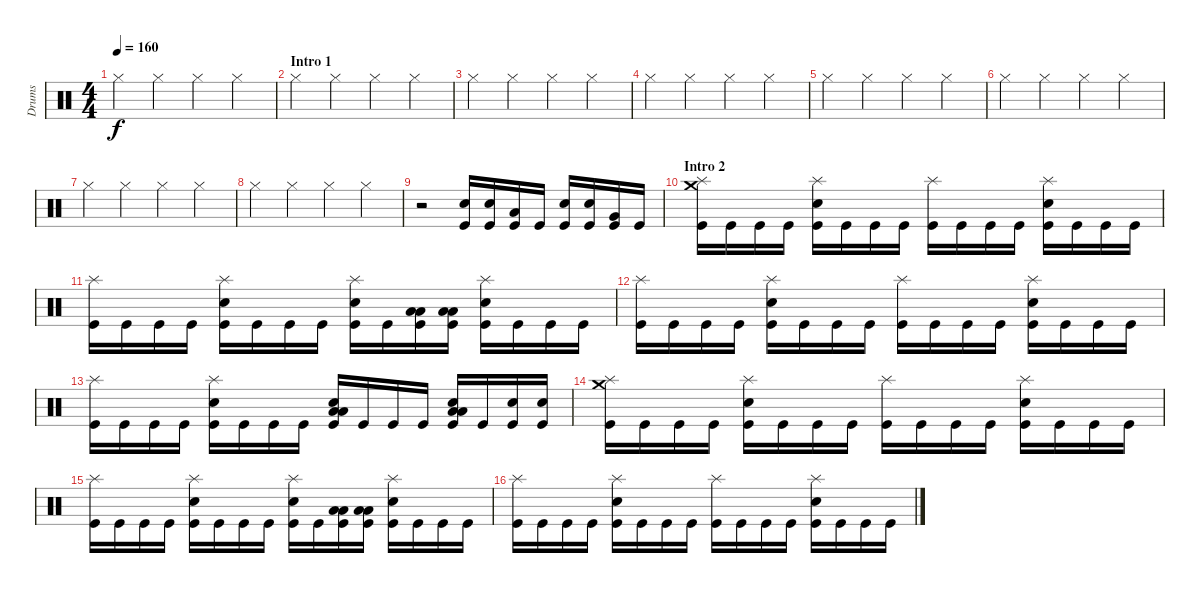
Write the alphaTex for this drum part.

\track ("Drums" "Drums") {instrument percussion}
\staff {score}
\articulation defaults
\ts (4 4)
\tempo 160
\clef neutral
\ks c "Hi-Hat (closed)".4{dy f} "Hi-Hat (closed)".4 "Hi-Hat (closed)".4 "Hi-Hat (closed)".4
|
\section ("" "Intro 1")
"Hi-Hat (closed)".4 "Hi-Hat (closed)".4 "Hi-Hat (closed)".4 "Hi-Hat (closed)".4 |
"Hi-Hat (closed)".4 "Hi-Hat (closed)".4 "Hi-Hat (closed)".4 "Hi-Hat (closed)".4 |
"Hi-Hat (closed)".4 "Hi-Hat (closed)".4 "Hi-Hat (closed)".4 "Hi-Hat (closed)".4 |
"Hi-Hat (closed)".4 "Hi-Hat (closed)".4 "Hi-Hat (closed)".4 "Hi-Hat (closed)".4 |
"Hi-Hat (closed)".4 "Hi-Hat (closed)".4 "Hi-Hat (closed)".4 "Hi-Hat (closed)".4 |
"Hi-Hat (closed)".4 "Hi-Hat (closed)".4 "Hi-Hat (closed)".4 "Hi-Hat (closed)".4 |
"Hi-Hat (closed)".4 "Hi-Hat (closed)".4 "Hi-Hat (closed)".4 "Hi-Hat (closed)".4 |
r.2 ("Electric Snare (hit)" "Kick (hit)").16 ("Electric Snare (hit)" "Kick (hit)").16 ("Low Tom (hit)" "Kick (hit)").16 "Kick (hit)".16 ("Electric Snare (hit)" "Kick (hit)").16 ("Electric Snare (hit)" "Kick (hit)").16 ("Very Low Tom (hit)" "Kick (hit)").16 "Kick (hit)".16 |
\section ("" "Intro 2")
("Crash medium (hit)" "Splash (hit)" "Kick (hit)").16 "Kick (hit)".16 "Kick (hit)".16 "Kick (hit)".16 ("Splash (hit)" "Electric Snare (hit)" "Kick (hit)").16 "Kick (hit)".16 "Kick (hit)".16 "Kick (hit)".16 ("Splash (hit)" "Kick (hit)").16 "Kick (hit)".16 "Kick (hit)".16 "Kick (hit)".16 ("Splash (hit)" "Electric Snare (hit)" "Kick (hit)").16 "Kick (hit)".16 "Kick (hit)".16 "Kick (hit)".16 |
("Splash (hit)" "Kick (hit)").16 "Kick (hit)".16 "Kick (hit)".16 "Kick (hit)".16 ("Splash (hit)" "Electric Snare (hit)" "Kick (hit)").16 "Kick (hit)".16 "Kick (hit)".16 "Kick (hit)".16 ("Splash (hit)" "Electric Snare (hit)" "Kick (hit)").16 "Kick (hit)".16 ("Low Floor Tom (hit)" "Low Floor Tom (hit)" "Kick (hit)").16 ("Low Floor Tom (hit)" "Low Floor Tom (hit)" "Kick (hit)").16 ("Splash (hit)" "Electric Snare (hit)" "Kick (hit)").16 "Kick (hit)".16 "Kick (hit)".16 "Kick (hit)".16 |
("Splash (hit)" "Kick (hit)").16 "Kick (hit)".16 "Kick (hit)".16 "Kick (hit)".16 ("Splash (hit)" "Electric Snare (hit)" "Kick (hit)").16 "Kick (hit)".16 "Kick (hit)".16 "Kick (hit)".16 ("Splash (hit)" "Kick (hit)").16 "Kick (hit)".16 "Kick (hit)".16 "Kick (hit)".16 ("Splash (hit)" "Electric Snare (hit)" "Kick (hit)").16 "Kick (hit)".16 "Kick (hit)".16 "Kick (hit)".16 |
("Splash (hit)" "Kick (hit)").16 "Kick (hit)".16 "Kick (hit)".16 "Kick (hit)".16 ("Splash (hit)" "Electric Snare (hit)" "Kick (hit)").16 "Kick (hit)".16 "Kick (hit)".16 "Kick (hit)".16 ("Low Floor Tom (hit)" "Low Floor Tom (hit)" "Electric Snare (hit)" "Kick (hit)").16 "Kick (hit)".16 "Kick (hit)".16 "Kick (hit)".16 ("Low Floor Tom (hit)" "Low Floor Tom (hit)" "Electric Snare (hit)" "Kick (hit)").16 "Kick (hit)".16 ("Electric Snare (hit)" "Kick (hit)").16 ("Electric Snare (hit)" "Kick (hit)").16 |
("Crash medium (hit)" "Splash (hit)" "Kick (hit)").16 "Kick (hit)".16 "Kick (hit)".16 "Kick (hit)".16 ("Splash (hit)" "Electric Snare (hit)" "Kick (hit)").16 "Kick (hit)".16 "Kick (hit)".16 "Kick (hit)".16 ("Splash (hit)" "Kick (hit)").16 "Kick (hit)".16 "Kick (hit)".16 "Kick (hit)".16 ("Splash (hit)" "Electric Snare (hit)" "Kick (hit)").16 "Kick (hit)".16 "Kick (hit)".16 "Kick (hit)".16 |
("Splash (hit)" "Kick (hit)").16 "Kick (hit)".16 "Kick (hit)".16 "Kick (hit)".16 ("Splash (hit)" "Electric Snare (hit)" "Kick (hit)").16 "Kick (hit)".16 "Kick (hit)".16 "Kick (hit)".16 ("Splash (hit)" "Electric Snare (hit)" "Kick (hit)").16 "Kick (hit)".16 ("Low Floor Tom (hit)" "Low Floor Tom (hit)" "Kick (hit)").16 ("Low Floor Tom (hit)" "Low Floor Tom (hit)" "Kick (hit)").16 ("Splash (hit)" "Electric Snare (hit)" "Kick (hit)").16 "Kick (hit)".16 "Kick (hit)".16 "Kick (hit)".16 |
("Splash (hit)" "Kick (hit)").16 "Kick (hit)".16 "Kick (hit)".16 "Kick (hit)".16 ("Splash (hit)" "Electric Snare (hit)" "Kick (hit)").16 "Kick (hit)".16 "Kick (hit)".16 "Kick (hit)".16 ("Splash (hit)" "Kick (hit)").16 "Kick (hit)".16 "Kick (hit)".16 "Kick (hit)".16 ("Splash (hit)" "Electric Snare (hit)" "Kick (hit)").16 "Kick (hit)".16 "Kick (hit)".16 "Kick (hit)".16
